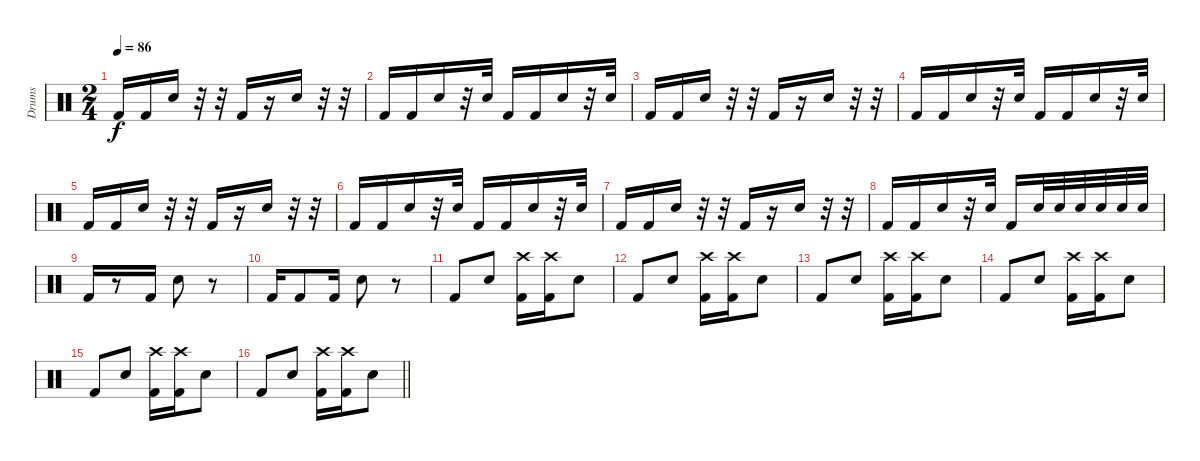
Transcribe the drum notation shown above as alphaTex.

\track ("Drums" "Drums") {instrument percussion}
\staff {score}
\articulation defaults
\ts (2 4)
\tempo 86
\clef neutral
\ks c "Kick (hit) 2".16{dy f} "Kick (hit) 2".16 "Snare (hit) 2".16
r.32 r.32 "Kick (hit) 2".16 r.16 "Snare (hit) 2".16 r.32 r.32 |
"Kick (hit) 2".16 "Kick (hit) 2".16 "Snare (hit) 2".16 r.32 "Snare (hit) 2".32 "Kick (hit) 2".16 "Kick (hit) 2".16 "Snare (hit) 2".16 r.32 "Snare (hit) 2".32 |
"Kick (hit) 2".16 "Kick (hit) 2".16 "Snare (hit) 2".16 r.32 r.32 "Kick (hit) 2".16 r.16 "Snare (hit) 2".16 r.32 r.32 |
"Kick (hit) 2".16 "Kick (hit) 2".16 "Snare (hit) 2".16 r.32 "Snare (hit) 2".32 "Kick (hit) 2".16 "Kick (hit) 2".16 "Snare (hit) 2".16 r.32 "Snare (hit) 2".32 |
"Kick (hit) 2".16 "Kick (hit) 2".16 "Snare (hit) 2".16 r.32 r.32 "Kick (hit) 2".16 r.16 "Snare (hit) 2".16 r.32 r.32 |
"Kick (hit) 2".16 "Kick (hit) 2".16 "Snare (hit) 2".16 r.32 "Snare (hit) 2".32 "Kick (hit) 2".16 "Kick (hit) 2".16 "Snare (hit) 2".16 r.32 "Snare (hit) 2".32 |
"Kick (hit) 2".16 "Kick (hit) 2".16 "Snare (hit) 2".16 r.32 r.32 "Kick (hit) 2".16 r.16 "Snare (hit) 2".16 r.32 r.32 |
"Kick (hit) 2".16 "Kick (hit) 2".16 "Snare (hit) 2".16 r.32 "Snare (hit) 2".32 "Kick (hit) 2".16 "Snare (hit) 2".32 "Snare (hit) 2".32 "Snare (hit) 2".32 "Snare (hit) 2".32 "Snare (hit) 2".32 "Snare (hit) 2".32 |
"Kick (hit) 2".16 r.8 "Kick (hit) 2".16 "Snare (hit) 2".8 r.8 |
"Kick (hit) 2".16 "Kick (hit) 2".8 "Kick (hit) 2".16 "Snare (hit) 2".8 r.8 |
"Kick (hit) 2".8 "Snare (hit) 2".8 ("Crash high (hit)" "Kick (hit) 2").16 ("Crash high (hit)" "Kick (hit) 2").16 "Snare (hit) 2".8 |
"Kick (hit) 2".8 "Snare (hit) 2".8 ("Crash high (hit)" "Kick (hit) 2").16 ("Crash high (hit)" "Kick (hit) 2").16 "Snare (hit) 2".8 |
"Kick (hit) 2".8 "Snare (hit) 2".8 ("Crash high (hit)" "Kick (hit) 2").16 ("Crash high (hit)" "Kick (hit) 2").16 "Snare (hit) 2".8 |
"Kick (hit) 2".8 "Snare (hit) 2".8 ("Crash high (hit)" "Kick (hit) 2").16 ("Crash high (hit)" "Kick (hit) 2").16 "Snare (hit) 2".8 |
"Kick (hit) 2".8 "Snare (hit) 2".8 ("Crash high (hit)" "Kick (hit) 2").16 ("Crash high (hit)" "Kick (hit) 2").16 "Snare (hit) 2".8 |
\barLineRight lightlight "Kick (hit) 2".8 "Snare (hit) 2".8
("Crash high (hit)" "Kick (hit) 2").16 ("Crash high (hit)" "Kick (hit) 2").16 "Snare (hit) 2".8
